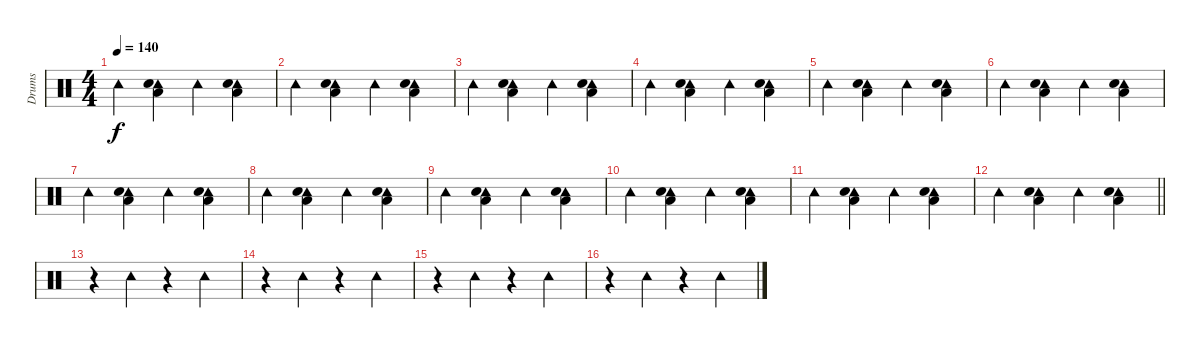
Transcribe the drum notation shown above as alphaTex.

\track ("Drums" "Drums") {instrument percussion}
\staff {score}
\articulation defaults
\ts (4 4)
\tempo 140
\clef neutral
\ks c "Tambourine (hit)".4{dy f}
("Low Tom (hit)" "Tambourine (hit)" "Hand Clap (hit)").4 "Tambourine (hit)".4 ("Low Tom (hit)" "Tambourine (hit)" "Hand Clap (hit)").4 |
"Tambourine (hit)".4 ("Low Tom (hit)" "Tambourine (hit)" "Hand Clap (hit)").4 "Tambourine (hit)".4 ("Low Tom (hit)" "Tambourine (hit)" "Hand Clap (hit)").4 |
"Tambourine (hit)".4 ("Low Tom (hit)" "Tambourine (hit)" "Hand Clap (hit)").4 "Tambourine (hit)".4 ("Low Tom (hit)" "Tambourine (hit)" "Hand Clap (hit)").4 |
"Tambourine (hit)".4 ("Low Tom (hit)" "Tambourine (hit)" "Hand Clap (hit)").4 "Tambourine (hit)".4 ("Low Tom (hit)" "Tambourine (hit)" "Hand Clap (hit)").4 |
"Tambourine (hit)".4 ("Low Tom (hit)" "Tambourine (hit)" "Hand Clap (hit)").4 "Tambourine (hit)".4 ("Low Tom (hit)" "Tambourine (hit)" "Hand Clap (hit)").4 |
"Tambourine (hit)".4 ("Low Tom (hit)" "Tambourine (hit)" "Hand Clap (hit)").4 "Tambourine (hit)".4 ("Low Tom (hit)" "Tambourine (hit)" "Hand Clap (hit)").4 |
"Tambourine (hit)".4 ("Low Tom (hit)" "Tambourine (hit)" "Hand Clap (hit)").4 "Tambourine (hit)".4 ("Low Tom (hit)" "Tambourine (hit)" "Hand Clap (hit)").4 |
"Tambourine (hit)".4 ("Low Tom (hit)" "Tambourine (hit)" "Hand Clap (hit)").4 "Tambourine (hit)".4 ("Low Tom (hit)" "Tambourine (hit)" "Hand Clap (hit)").4 |
"Tambourine (hit)".4 ("Low Tom (hit)" "Tambourine (hit)" "Hand Clap (hit)").4 "Tambourine (hit)".4 ("Low Tom (hit)" "Tambourine (hit)" "Hand Clap (hit)").4 |
"Tambourine (hit)".4 ("Low Tom (hit)" "Tambourine (hit)" "Hand Clap (hit)").4 "Tambourine (hit)".4 ("Low Tom (hit)" "Tambourine (hit)" "Hand Clap (hit)").4 |
"Tambourine (hit)".4 ("Low Tom (hit)" "Tambourine (hit)" "Hand Clap (hit)").4 "Tambourine (hit)".4 ("Low Tom (hit)" "Tambourine (hit)" "Hand Clap (hit)").4 |
\barLineRight lightlight "Tambourine (hit)".4
("Low Tom (hit)" "Tambourine (hit)" "Hand Clap (hit)").4 "Tambourine (hit)".4 ("Low Tom (hit)" "Tambourine (hit)" "Hand Clap (hit)").4 |
r.4 "Tambourine (hit)".4 r.4 "Tambourine (hit)".4 |
r.4 "Tambourine (hit)".4 r.4 "Tambourine (hit)".4 |
r.4 "Tambourine (hit)".4 r.4 "Tambourine (hit)".4 |
r.4 "Tambourine (hit)".4 r.4 "Tambourine (hit)".4
